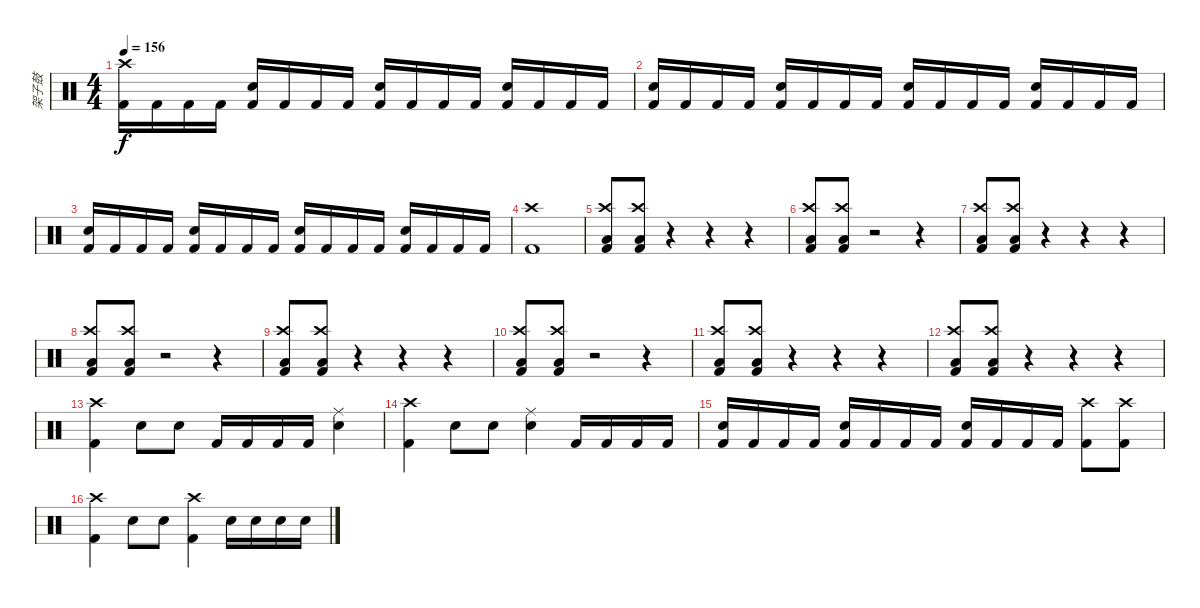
\track ("架子鼓" "架子鼓") {instrument percussion}
\staff {score}
\articulation defaults
\ts (4 4)
\tempo 156
\clef neutral
\ks c
("Kick (hit) 2" "Crash high (hit)").16{dy f} "Kick (hit) 2".16 "Kick (hit) 2".16 "Kick (hit) 2".16 ("Kick (hit) 2" "Electric Snare (hit)").16 "Kick (hit) 2".16 "Kick (hit) 2".16 "Kick (hit) 2".16 ("Kick (hit) 2" "Electric Snare (hit)").16 "Kick (hit) 2".16 "Kick (hit) 2".16 "Kick (hit) 2".16 ("Kick (hit) 2" "Electric Snare (hit)").16 "Kick (hit) 2".16 "Kick (hit) 2".16 "Kick (hit) 2".16 |
("Kick (hit) 2" "Electric Snare (hit)").16 "Kick (hit) 2".16 "Kick (hit) 2".16 "Kick (hit) 2".16 ("Kick (hit) 2" "Electric Snare (hit)").16 "Kick (hit) 2".16 "Kick (hit) 2".16 "Kick (hit) 2".16 ("Kick (hit) 2" "Electric Snare (hit)").16 "Kick (hit) 2".16 "Kick (hit) 2".16 "Kick (hit) 2".16 ("Kick (hit) 2" "Electric Snare (hit)").16 "Kick (hit) 2".16 "Kick (hit) 2".16 "Kick (hit) 2".16 |
("Kick (hit) 2" "Electric Snare (hit)").16 "Kick (hit) 2".16 "Kick (hit) 2".16 "Kick (hit) 2".16 ("Kick (hit) 2" "Electric Snare (hit)").16 "Kick (hit) 2".16 "Kick (hit) 2".16 "Kick (hit) 2".16 ("Kick (hit) 2" "Electric Snare (hit)").16 "Kick (hit) 2".16 "Kick (hit) 2".16 "Kick (hit) 2".16 ("Kick (hit) 2" "Electric Snare (hit)").16 "Kick (hit) 2".16 "Kick (hit) 2".16 "Kick (hit) 2".16 |
("Kick (hit) 2" "Crash high (hit)").1 |
("Low Floor Tom (hit)" "Kick (hit) 2" "Crash high (hit)").8 ("Low Floor Tom (hit)" "Kick (hit) 2" "Crash high (hit)").8 r.4 r.4 r.4 |
("Low Floor Tom (hit)" "Kick (hit) 2" "Crash high (hit)").8 ("Low Floor Tom (hit)" "Kick (hit) 2" "Crash high (hit)").8 r.2 r.4 |
("Low Floor Tom (hit)" "Kick (hit) 2" "Crash high (hit)").8 ("Low Floor Tom (hit)" "Kick (hit) 2" "Crash high (hit)").8 r.4 r.4 r.4 |
("Low Floor Tom (hit)" "Kick (hit) 2" "Crash high (hit)").8 ("Low Floor Tom (hit)" "Kick (hit) 2" "Crash high (hit)").8 r.2 r.4 |
("Low Floor Tom (hit)" "Kick (hit) 2" "Crash high (hit)").8 ("Low Floor Tom (hit)" "Kick (hit) 2" "Crash high (hit)").8 r.4 r.4 r.4 |
("Low Floor Tom (hit)" "Kick (hit) 2" "Crash high (hit)").8 ("Low Floor Tom (hit)" "Kick (hit) 2" "Crash high (hit)").8 r.2 r.4 |
("Low Floor Tom (hit)" "Kick (hit) 2" "Crash high (hit)").8 ("Low Floor Tom (hit)" "Kick (hit) 2" "Crash high (hit)").8 r.4 r.4 r.4 |
("Low Floor Tom (hit)" "Kick (hit) 2" "Crash high (hit)").8 ("Low Floor Tom (hit)" "Kick (hit) 2" "Crash high (hit)").8 r.4 r.4 r.4 |
("Kick (hit) 2" "Crash high (hit)").4 "Snare (hit) 2".8 "Snare (hit) 2".8 "Kick (hit) 2".16 "Kick (hit) 2".16 "Kick (hit) 2".16 "Kick (hit) 2".16 ("Electric Snare (hit)" "Ride (middle)").4 |
("Kick (hit) 2" "Crash high (hit)").4 "Snare (hit) 2".8 "Snare (hit) 2".8 ("Electric Snare (hit)" "Ride (middle)").4 "Kick (hit) 2".16 "Kick (hit) 2".16 "Kick (hit) 2".16 "Kick (hit) 2".16 |
("Kick (hit) 2" "Electric Snare (hit)").16 "Kick (hit) 2".16 "Kick (hit) 2".16 "Kick (hit) 2".16 ("Kick (hit) 2" "Electric Snare (hit)").16 "Kick (hit) 2".16 "Kick (hit) 2".16 "Kick (hit) 2".16 ("Kick (hit) 2" "Electric Snare (hit)").16 "Kick (hit) 2".16 "Kick (hit) 2".16 "Kick (hit) 2".16 ("Kick (hit) 2" "Crash high (hit)").8 ("Kick (hit) 2" "Crash high (hit)").8 |
("Kick (hit) 2" "Crash high (hit)").4 "Snare (hit) 2".8 "Snare (hit) 2".8 ("Kick (hit) 2" "Crash high (hit)").4 "Electric Snare (hit)".16 "Electric Snare (hit)".16 "Electric Snare (hit)".16 "Electric Snare (hit)".16
